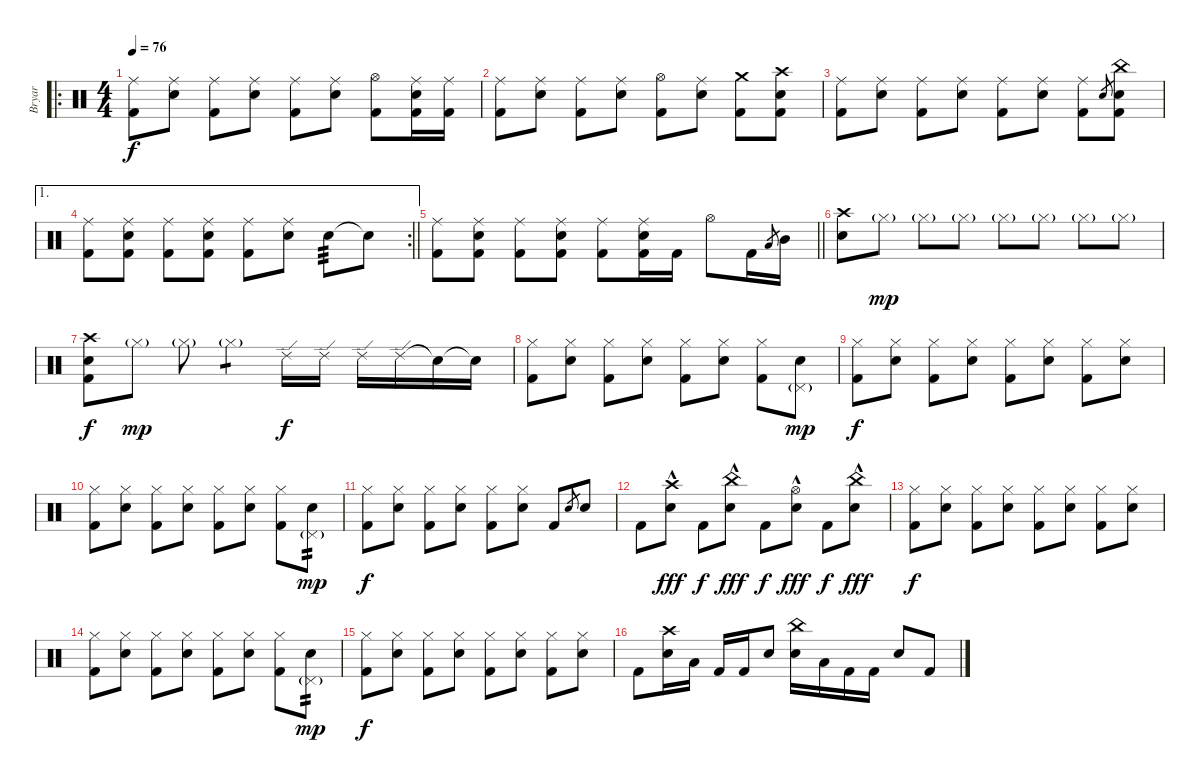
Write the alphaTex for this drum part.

\track ("Bryar" "Bryar") {instrument percussion}
\staff {score}
\articulation defaults
\ro
\ts (4 4)
\tempo 76
\clef neutral
\ks c
("Ride (middle)" "Kick (hit) 2").8{dy f} ("Ride (middle)" "Electric Snare (hit)").8 ("Ride (middle)" "Kick (hit) 2").8 ("Ride (middle)" "Electric Snare (hit)").8 ("Ride (middle)" "Kick (hit) 2").8 ("Ride (middle)" "Electric Snare (hit)").8 ("Hi-Hat (open)" "Kick (hit) 2").8 ("Ride (middle)" "Electric Snare (hit)" "Kick (hit) 2").16 ("Ride (middle)" "Kick (hit) 2").16 |
("Ride (middle)" "Kick (hit) 2").8 ("Ride (middle)" "Electric Snare (hit)").8 ("Ride (middle)" "Kick (hit) 2").8 ("Ride (middle)" "Electric Snare (hit)").8 ("Hi-Hat (open)" "Kick (hit) 2").8 ("Ride (middle)" "Electric Snare (hit)").8 ("Crash medium (hit)" "Kick (hit) 2").8 ("Crash high (hit)" "Electric Snare (hit)" "Kick (hit) 2").8 |
("Ride (middle)" "Kick (hit) 2").8 ("Ride (middle)" "Electric Snare (hit)").8 ("Ride (middle)" "Kick (hit) 2").8 ("Ride (middle)" "Electric Snare (hit)").8 ("Ride (middle)" "Kick (hit) 2").8 ("Ride (middle)" "Electric Snare (hit)").8 ("Ride (middle)" "Kick (hit) 2").8 "Electric Snare (hit)".8{gr} ("China (hit)" "Electric Snare (hit)" "Kick (hit) 2").8 |
\ae 1
\rc 2
\barLineRight lightlight
("Ride (middle)" "Kick (hit) 2").8 ("Ride (middle)" "Electric Snare (hit)" "Kick (hit) 2").8 ("Ride (middle)" "Kick (hit) 2").8 ("Ride (middle)" "Electric Snare (hit)" "Kick (hit) 2").8 ("Ride (middle)" "Kick (hit) 2").8 ("Ride (middle)" "Electric Snare (hit)").8 "Electric Snare (hit)".8{tp 3} "Electric Snare (hit)"{t}.8 |
\barLineRight lightlight
("Ride (middle)" "Kick (hit) 2").8 ("Ride (middle)" "Electric Snare (hit)" "Kick (hit) 2").8 ("Ride (middle)" "Kick (hit) 2").8 ("Ride (middle)" "Electric Snare (hit)" "Kick (hit) 2").8 ("Ride (middle)" "Kick (hit) 2").8 ("Ride (middle)" "Electric Snare (hit)" "Kick (hit) 2").16 "Kick (hit) 2".16 "Hi-Hat (open)".8 "Kick (hit) 2".16 "Low Tom (hit)".8{gr} "Mid Tom (hit)".16 |
("Crash high (hit)" "Electric Snare (hit)").8 "Hi-Hat (closed)"{g}.8{dy mp} "Hi-Hat (closed)"{g}.8 "Hi-Hat (closed)"{g}.8 "Hi-Hat (closed)"{g}.8 "Hi-Hat (closed)"{g}.8 "Hi-Hat (closed)"{g}.8 "Hi-Hat (closed)"{g}.8 |
("Kick (hit) 2" "Electric Snare (hit)" "Crash high (hit)").8{dy f} "Hi-Hat (closed)"{g}.8{dy mp} "Hi-Hat (closed)"{g}.8 "Hi-Hat (closed)"{g}.4{tp 1} "Ride (edge) 2".16{dy f} "Ride (edge) 2".16 "Ride (edge) 2".16 "Ride (edge) 2".16 "Snare (hit)"{t}.16 "Snare (hit)"{t}.16 |
("Hi-Hat (closed)" "Kick (hit) 2").8 ("Hi-Hat (closed)" "Electric Snare (hit)").8 ("Hi-Hat (closed)" "Kick (hit) 2").8 ("Hi-Hat (closed)" "Electric Snare (hit)").8 ("Hi-Hat (closed)" "Kick (hit) 2").8 ("Hi-Hat (closed)" "Electric Snare (hit)").8 ("Hi-Hat (closed)" "Kick (hit) 2").8 ("Pedal Hi-Hat (hit)"{g} "Electric Snare (hit)").8{dy mp} |
("Hi-Hat (closed)" "Kick (hit) 2").8{dy f} ("Hi-Hat (closed)" "Electric Snare (hit)").8 ("Hi-Hat (closed)" "Kick (hit) 2").8 ("Hi-Hat (closed)" "Electric Snare (hit)").8 ("Hi-Hat (closed)" "Kick (hit) 2").8 ("Hi-Hat (closed)" "Electric Snare (hit)").8 ("Hi-Hat (closed)" "Kick (hit) 2").8 ("Hi-Hat (closed)" "Electric Snare (hit)").8 |
("Hi-Hat (closed)" "Kick (hit) 2").8 ("Hi-Hat (closed)" "Electric Snare (hit)").8 ("Hi-Hat (closed)" "Kick (hit) 2").8 ("Hi-Hat (closed)" "Electric Snare (hit)").8 ("Hi-Hat (closed)" "Kick (hit) 2").8 ("Hi-Hat (closed)" "Electric Snare (hit)").8 ("Hi-Hat (closed)" "Kick (hit) 2").8 ("Pedal Hi-Hat (hit)"{g} "Electric Snare (hit)").8{tp 2 dy mp} |
("Hi-Hat (closed)" "Kick (hit) 2").8{dy f} ("Hi-Hat (closed)" "Electric Snare (hit)").8 ("Hi-Hat (closed)" "Kick (hit) 2").8 ("Hi-Hat (closed)" "Electric Snare (hit)").8 ("Hi-Hat (closed)" "Kick (hit) 2").8 ("Hi-Hat (closed)" "Electric Snare (hit)").8 "Kick (hit) 2".8 "Electric Snare (hit)".8{gr} "Electric Snare (hit)".8 |
"Kick (hit) 2".8 ("Crash high (hit)"{hac} "Electric Snare (hit)").8{dy fff} "Kick (hit) 2".8{dy f} ("China (hit)"{hac} "Electric Snare (hit)").8{dy fff} "Kick (hit) 2".8{dy f} ("Hi-Hat (open)"{hac} "Electric Snare (hit)").8{dy fff} "Kick (hit) 2".8{dy f} ("China (hit)"{hac} "Electric Snare (hit)").8{dy fff} |
("Hi-Hat (closed)" "Kick (hit) 2").8{dy f} ("Hi-Hat (closed)" "Electric Snare (hit)").8 ("Hi-Hat (closed)" "Kick (hit) 2").8 ("Hi-Hat (closed)" "Electric Snare (hit)").8 ("Hi-Hat (closed)" "Kick (hit) 2").8 ("Hi-Hat (closed)" "Electric Snare (hit)").8 ("Hi-Hat (closed)" "Kick (hit) 2").8 ("Hi-Hat (closed)" "Electric Snare (hit)").8 |
("Hi-Hat (closed)" "Kick (hit) 2").8 ("Hi-Hat (closed)" "Electric Snare (hit)").8 ("Hi-Hat (closed)" "Kick (hit) 2").8 ("Hi-Hat (closed)" "Electric Snare (hit)").8 ("Hi-Hat (closed)" "Kick (hit) 2").8 ("Hi-Hat (closed)" "Electric Snare (hit)").8 ("Hi-Hat (closed)" "Kick (hit) 2").8 ("Pedal Hi-Hat (hit)"{g} "Electric Snare (hit)").8{tp 2 dy mp} |
("Hi-Hat (closed)" "Kick (hit) 2").8{dy f} ("Hi-Hat (closed)" "Electric Snare (hit)").8 ("Hi-Hat (closed)" "Kick (hit) 2").8 ("Hi-Hat (closed)" "Electric Snare (hit)").8 ("Hi-Hat (closed)" "Kick (hit) 2").8 ("Hi-Hat (closed)" "Electric Snare (hit)").8 ("Hi-Hat (closed)" "Kick (hit) 2").8 ("Hi-Hat (closed)" "Electric Snare (hit)").8 |
"Kick (hit) 2".8 ("Crash high (hit)" "Electric Snare (hit)").16 "Low Tom (hit)".16 "Kick (hit) 2".16 "Kick (hit) 2".16 "Electric Snare (hit)".8 ("China (hit)" "Electric Snare (hit)").16 "Low Tom (hit)".16 "Kick (hit) 2".16 "Kick (hit) 2".16 "Electric Snare (hit)".8 "Kick (hit) 2".8
